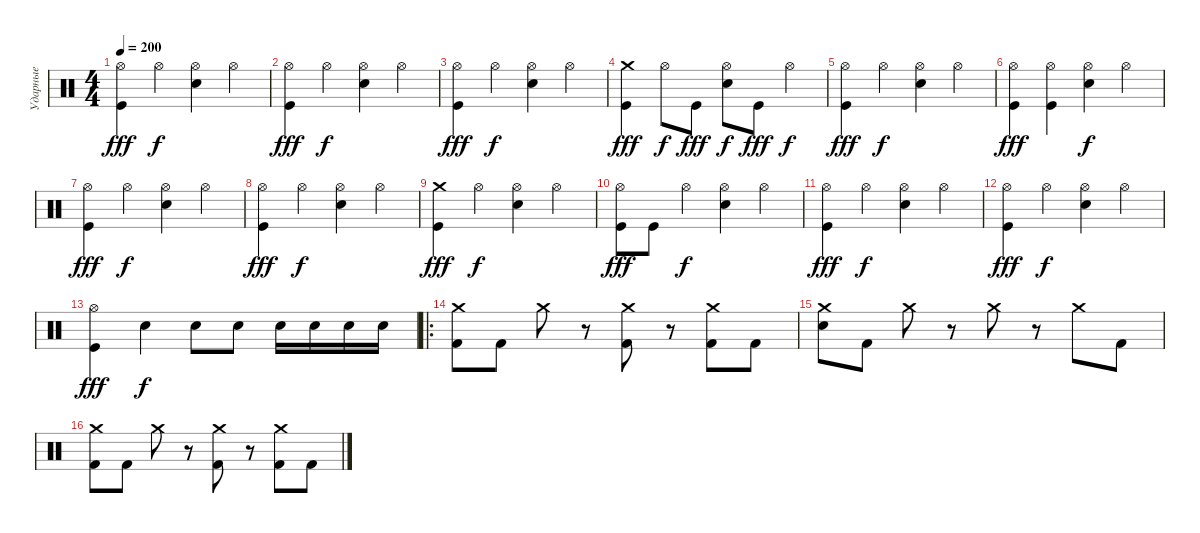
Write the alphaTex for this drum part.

\track ("Ударные" "Ударные") {instrument percussion}
\staff {score}
\articulation defaults
\ts (4 4)
\tempo 200
\clef neutral
\ks c
("Hi-Hat (open)" "Kick (hit)").4{dy fff} "Hi-Hat (open)".4{dy f} ("Hi-Hat (open)" "Electric Snare (hit)").4 "Hi-Hat (open)".4 |
("Hi-Hat (open)" "Kick (hit)").4{dy fff} "Hi-Hat (open)".4{dy f} ("Hi-Hat (open)" "Electric Snare (hit)").4 "Hi-Hat (open)".4 |
("Hi-Hat (open)" "Kick (hit)").4{dy fff} "Hi-Hat (open)".4{dy f} ("Hi-Hat (open)" "Electric Snare (hit)").4 "Hi-Hat (open)".4 |
("Crash medium (hit)" "Kick (hit)").4{dy fff} "Hi-Hat (open)".8{dy f} "Kick (hit)".8{dy fff} ("Hi-Hat (open)" "Electric Snare (hit)").8{dy f} "Kick (hit)".8{dy fff} "Hi-Hat (open)".4{dy f} |
("Hi-Hat (open)" "Kick (hit)").4{dy fff} "Hi-Hat (open)".4{dy f} ("Hi-Hat (open)" "Electric Snare (hit)").4 "Hi-Hat (open)".4 |
("Hi-Hat (open)" "Kick (hit)").4{dy fff} ("Hi-Hat (open)" "Kick (hit)").4 ("Hi-Hat (open)" "Electric Snare (hit)").4{dy f} "Hi-Hat (open)".4 |
("Hi-Hat (open)" "Kick (hit)").4{dy fff} "Hi-Hat (open)".4{dy f} ("Hi-Hat (open)" "Electric Snare (hit)").4 "Hi-Hat (open)".4 |
("Hi-Hat (open)" "Kick (hit)").4{dy fff} "Hi-Hat (open)".4{dy f} ("Hi-Hat (open)" "Electric Snare (hit)").4 "Hi-Hat (open)".4 |
("Crash medium (hit)" "Kick (hit)").4{dy fff} "Hi-Hat (open)".4{dy f} ("Hi-Hat (open)" "Electric Snare (hit)").4 "Hi-Hat (open)".4 |
("Hi-Hat (open)" "Kick (hit)").8{dy fff} "Kick (hit)".8 "Hi-Hat (open)".4{dy f} ("Hi-Hat (open)" "Electric Snare (hit)").4 "Hi-Hat (open)".4 |
("Hi-Hat (open)" "Kick (hit)").4{dy fff} "Hi-Hat (open)".4{dy f} ("Hi-Hat (open)" "Electric Snare (hit)").4 "Hi-Hat (open)".4 |
("Hi-Hat (open)" "Kick (hit)").4{dy fff} "Hi-Hat (open)".4{dy f} ("Hi-Hat (open)" "Electric Snare (hit)").4 "Hi-Hat (open)".4 |
("Hi-Hat (open)" "Kick (hit)").4{dy fff} "Electric Snare (hit)".4{dy f} "Electric Snare (hit)".8 "Electric Snare (hit)".8 "Electric Snare (hit)".16 "Electric Snare (hit)".16 "Electric Snare (hit)".16 "Electric Snare (hit)".16 |
\ro
("Crash medium (hit)" "Kick (hit) 2").8 "Kick (hit) 2".8 "Crash medium (hit)".8 r.8 ("Crash medium (hit)" "Kick (hit) 2").8 r.8 ("Crash medium (hit)" "Kick (hit) 2").8 "Kick (hit) 2".8 |
("Crash medium (hit)" "Electric Snare (hit)").8 "Kick (hit) 2".8 "Crash medium (hit)".8 r.8 "Crash medium (hit)".8 r.8 "Crash medium (hit)".8 "Kick (hit) 2".8 |
("Crash medium (hit)" "Kick (hit) 2").8 "Kick (hit) 2".8 "Crash medium (hit)".8 r.8 ("Crash medium (hit)" "Kick (hit) 2").8 r.8 ("Crash medium (hit)" "Kick (hit) 2").8 "Kick (hit) 2".8
